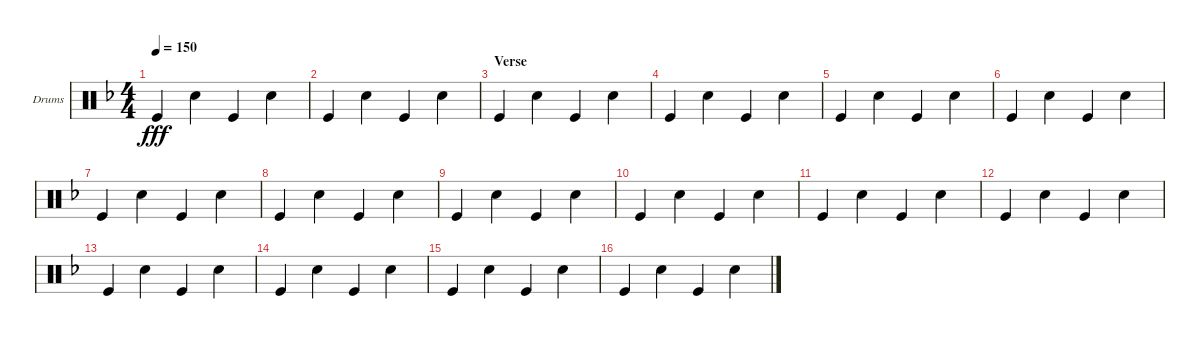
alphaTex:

\defaultSystemsLayout 4
\bracketExtendMode groupsimilarinstruments
\firstSystemTrackNameOrientation horizontal
\otherSystemsTrackNameOrientation horizontal
\track ("Drumkit" "Drums") {instrument percussion}
\staff {score}
\articulation defaults
\ts (4 4)
\tempo 150
\clef neutral
\scale
0.425
\ks f "Kick (hit)".4{dy fff} "Snare (hit) 2".4 "Kick (hit)".4 "Snare (hit) 2".4
|
\scale
0.178125 "Kick (hit)".4 "Snare (hit) 2".4 "Kick (hit)".4 "Snare (hit) 2".4 |
\section ("" "Verse")
\scale
0.333333 "Kick (hit)".4 "Snare (hit) 2".4 "Kick (hit)".4 "Snare (hit) 2".4 |
\scale
0.333333 "Kick (hit)".4 "Snare (hit) 2".4 "Kick (hit)".4 "Snare (hit) 2".4 |
\scale
0.333333 "Kick (hit)".4 "Snare (hit) 2".4 "Kick (hit)".4 "Snare (hit) 2".4 |
\scale
0.333333 "Kick (hit)".4 "Snare (hit) 2".4 "Kick (hit)".4 "Snare (hit) 2".4 |
\scale
0.333333 "Kick (hit)".4 "Snare (hit) 2".4 "Kick (hit)".4 "Snare (hit) 2".4 |
\scale
0.333333 "Kick (hit)".4 "Snare (hit) 2".4 "Kick (hit)".4 "Snare (hit) 2".4 |
\scale
0.333333 "Kick (hit)".4 "Snare (hit) 2".4 "Kick (hit)".4 "Snare (hit) 2".4 |
\scale
0.333333 "Kick (hit)".4 "Snare (hit) 2".4 "Kick (hit)".4 "Snare (hit) 2".4 |
\scale
0.333333 "Kick (hit)".4 "Snare (hit) 2".4 "Kick (hit)".4 "Snare (hit) 2".4 |
\scale
0.333333 "Kick (hit)".4 "Snare (hit) 2".4 "Kick (hit)".4 "Snare (hit) 2".4 |
\scale
0.333333 "Kick (hit)".4 "Snare (hit) 2".4 "Kick (hit)".4 "Snare (hit) 2".4 |
\scale
0.333333 "Kick (hit)".4 "Snare (hit) 2".4 "Kick (hit)".4 "Snare (hit) 2".4 |
\scale
0.333333 "Kick (hit)".4 "Snare (hit) 2".4 "Kick (hit)".4 "Snare (hit) 2".4 |
\scale
0.333333 "Kick (hit)".4 "Snare (hit) 2".4 "Kick (hit)".4 "Snare (hit) 2".4
